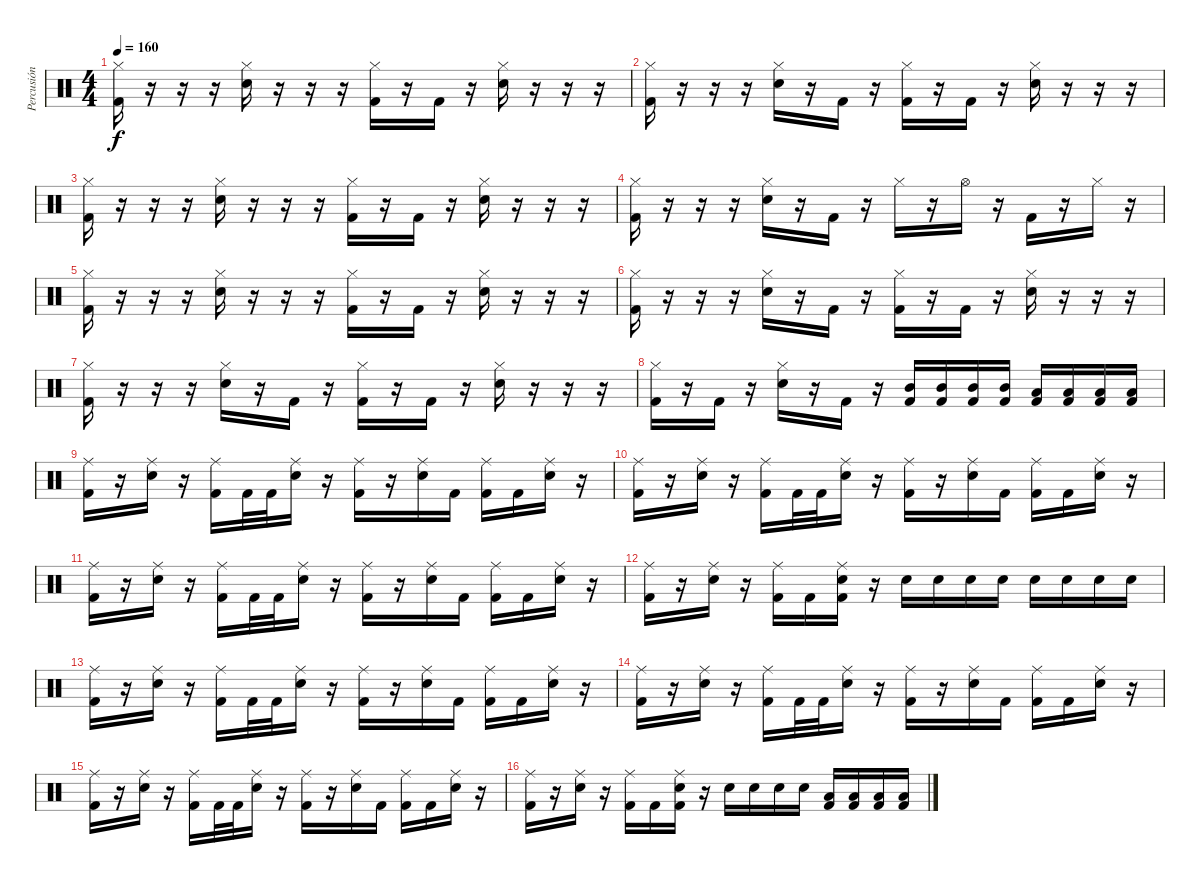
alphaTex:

\track ("Percusión" "Percusión") {instrument percussion}
\staff {score}
\articulation defaults
\ts (4 4)
\tempo 160
\clef neutral
\ks c
("Hi-Hat (closed)" "Kick (hit) 2").16{dy f} r.16 r.16 r.16 ("Hi-Hat (closed)" "Snare (hit) 2").16 r.16 r.16 r.16 ("Hi-Hat (closed)" "Kick (hit) 2").16 r.16 "Kick (hit) 2".16 r.16 ("Hi-Hat (closed)" "Snare (hit) 2").16 r.16 r.16 r.16 |
("Hi-Hat (closed)" "Kick (hit) 2").16 r.16 r.16 r.16 ("Hi-Hat (closed)" "Snare (hit) 2").16 r.16 "Kick (hit) 2".16 r.16 ("Hi-Hat (closed)" "Kick (hit) 2").16 r.16 "Kick (hit) 2".16 r.16 ("Hi-Hat (closed)" "Snare (hit) 2").16 r.16 r.16 r.16 |
("Hi-Hat (closed)" "Kick (hit) 2").16 r.16 r.16 r.16 ("Hi-Hat (closed)" "Snare (hit) 2").16 r.16 r.16 r.16 ("Hi-Hat (closed)" "Kick (hit) 2").16 r.16 "Kick (hit) 2".16 r.16 ("Hi-Hat (closed)" "Snare (hit) 2").16 r.16 r.16 r.16 |
("Hi-Hat (closed)" "Kick (hit) 2").16 r.16 r.16 r.16 ("Hi-Hat (closed)" "Snare (hit) 2").16 r.16 "Kick (hit) 2".16 r.16 "Hi-Hat (closed)".16 r.16 "Hi-Hat (open)".16 r.16 "Kick (hit) 2".16 r.16 "Hi-Hat (closed)".16 r.16 |
("Hi-Hat (closed)" "Kick (hit) 2").16 r.16 r.16 r.16 ("Hi-Hat (closed)" "Snare (hit) 2").16 r.16 r.16 r.16 ("Hi-Hat (closed)" "Kick (hit) 2").16 r.16 "Kick (hit) 2".16 r.16 ("Hi-Hat (closed)" "Snare (hit) 2").16 r.16 r.16 r.16 |
("Hi-Hat (closed)" "Kick (hit) 2").16 r.16 r.16 r.16 ("Hi-Hat (closed)" "Snare (hit) 2").16 r.16 "Kick (hit) 2".16 r.16 ("Hi-Hat (closed)" "Kick (hit) 2").16 r.16 "Kick (hit) 2".16 r.16 ("Hi-Hat (closed)" "Snare (hit) 2").16 r.16 r.16 r.16 |
("Hi-Hat (closed)" "Kick (hit) 2").16 r.16 r.16 r.16 ("Hi-Hat (closed)" "Snare (hit) 2").16 r.16 "Kick (hit) 2".16 r.16 ("Hi-Hat (closed)" "Kick (hit) 2").16 r.16 "Kick (hit) 2".16 r.16 ("Hi-Hat (closed)" "Snare (hit) 2").16 r.16 r.16 r.16 |
("Hi-Hat (closed)" "Kick (hit) 2").16 r.16 "Kick (hit) 2".16 r.16 ("Hi-Hat (closed)" "Snare (hit) 2").16 r.16 "Kick (hit) 2".16 r.16 ("Mid Tom (hit)" "Kick (hit) 2").16 ("Mid Tom (hit)" "Kick (hit) 2").16 ("Mid Tom (hit)" "Kick (hit) 2").16 ("Mid Tom (hit)" "Kick (hit) 2").16 ("Low Tom (hit)" "Kick (hit) 2").16 ("Low Tom (hit)" "Kick (hit) 2").16 ("Low Tom (hit)" "Kick (hit) 2").16 ("Low Tom (hit)" "Kick (hit) 2").16 |
("Ride (middle)" "Kick (hit) 2").16 r.16 ("Ride (middle)" "Snare (hit) 2").16 r.16 ("Ride (middle)" "Kick (hit) 2").16 "Kick (hit) 2".32 "Kick (hit) 2".32 ("Ride (middle)" "Snare (hit) 2").16 r.16 ("Ride (middle)" "Kick (hit) 2").16 r.16 ("Ride (middle)" "Snare (hit) 2").16 "Kick (hit) 2".16 ("Ride (middle)" "Kick (hit) 2").16 "Kick (hit) 2".16 ("Ride (middle)" "Snare (hit) 2").16 r.16 |
("Ride (middle)" "Kick (hit) 2").16 r.16 ("Ride (middle)" "Snare (hit) 2").16 r.16 ("Ride (middle)" "Kick (hit) 2").16 "Kick (hit) 2".32 "Kick (hit) 2".32 ("Ride (middle)" "Snare (hit) 2").16 r.16 ("Ride (middle)" "Kick (hit) 2").16 r.16 ("Ride (middle)" "Snare (hit) 2").16 "Kick (hit) 2".16 ("Ride (middle)" "Kick (hit) 2").16 "Kick (hit) 2".16 ("Ride (middle)" "Snare (hit) 2").16 r.16 |
("Ride (middle)" "Kick (hit) 2").16 r.16 ("Ride (middle)" "Snare (hit) 2").16 r.16 ("Ride (middle)" "Kick (hit) 2").16 "Kick (hit) 2".32 "Kick (hit) 2".32 ("Ride (middle)" "Snare (hit) 2").16 r.16 ("Ride (middle)" "Kick (hit) 2").16 r.16 ("Ride (middle)" "Snare (hit) 2").16 "Kick (hit) 2".16 ("Ride (middle)" "Kick (hit) 2").16 "Kick (hit) 2".16 ("Ride (middle)" "Snare (hit) 2").16 r.16 |
("Ride (middle)" "Kick (hit) 2").16 r.16 ("Ride (middle)" "Snare (hit) 2").16 r.16 ("Ride (middle)" "Kick (hit) 2").16 "Kick (hit) 2".16 ("Ride (middle)" "Snare (hit) 2" "Kick (hit) 2").16 r.16 "Snare (hit) 2".16 "Snare (hit) 2".16 "Snare (hit) 2".16 "Snare (hit) 2".16 "Snare (hit) 2".16 "Snare (hit) 2".16 "Snare (hit) 2".16 "Snare (hit) 2".16 |
("Ride (middle)" "Kick (hit) 2").16 r.16 ("Ride (middle)" "Snare (hit) 2").16 r.16 ("Ride (middle)" "Kick (hit) 2").16 "Kick (hit) 2".32 "Kick (hit) 2".32 ("Ride (middle)" "Snare (hit) 2").16 r.16 ("Ride (middle)" "Kick (hit) 2").16 r.16 ("Ride (middle)" "Snare (hit) 2").16 "Kick (hit) 2".16 ("Ride (middle)" "Kick (hit) 2").16 "Kick (hit) 2".16 ("Ride (middle)" "Snare (hit) 2").16 r.16 |
("Ride (middle)" "Kick (hit) 2").16 r.16 ("Ride (middle)" "Snare (hit) 2").16 r.16 ("Ride (middle)" "Kick (hit) 2").16 "Kick (hit) 2".32 "Kick (hit) 2".32 ("Ride (middle)" "Snare (hit) 2").16 r.16 ("Ride (middle)" "Kick (hit) 2").16 r.16 ("Ride (middle)" "Snare (hit) 2").16 "Kick (hit) 2".16 ("Ride (middle)" "Kick (hit) 2").16 "Kick (hit) 2".16 ("Ride (middle)" "Snare (hit) 2").16 r.16 |
("Ride (middle)" "Kick (hit) 2").16 r.16 ("Ride (middle)" "Snare (hit) 2").16 r.16 ("Ride (middle)" "Kick (hit) 2").16 "Kick (hit) 2".32 "Kick (hit) 2".32 ("Ride (middle)" "Snare (hit) 2").16 r.16 ("Ride (middle)" "Kick (hit) 2").16 r.16 ("Ride (middle)" "Snare (hit) 2").16 "Kick (hit) 2".16 ("Ride (middle)" "Kick (hit) 2").16 "Kick (hit) 2".16 ("Ride (middle)" "Snare (hit) 2").16 r.16 |
("Ride (middle)" "Kick (hit) 2").16 r.16 ("Ride (middle)" "Snare (hit) 2").16 r.16 ("Ride (middle)" "Kick (hit) 2").16 "Kick (hit) 2".16 ("Ride (middle)" "Snare (hit) 2" "Kick (hit) 2").16 r.16 "Snare (hit) 2".16 "Snare (hit) 2".16 "Snare (hit) 2".16 "Snare (hit) 2".16 ("Low Tom (hit)" "Kick (hit) 2").16 ("Low Tom (hit)" "Kick (hit) 2").16 ("Low Tom (hit)" "Kick (hit) 2").16 ("Low Tom (hit)" "Kick (hit) 2").16
